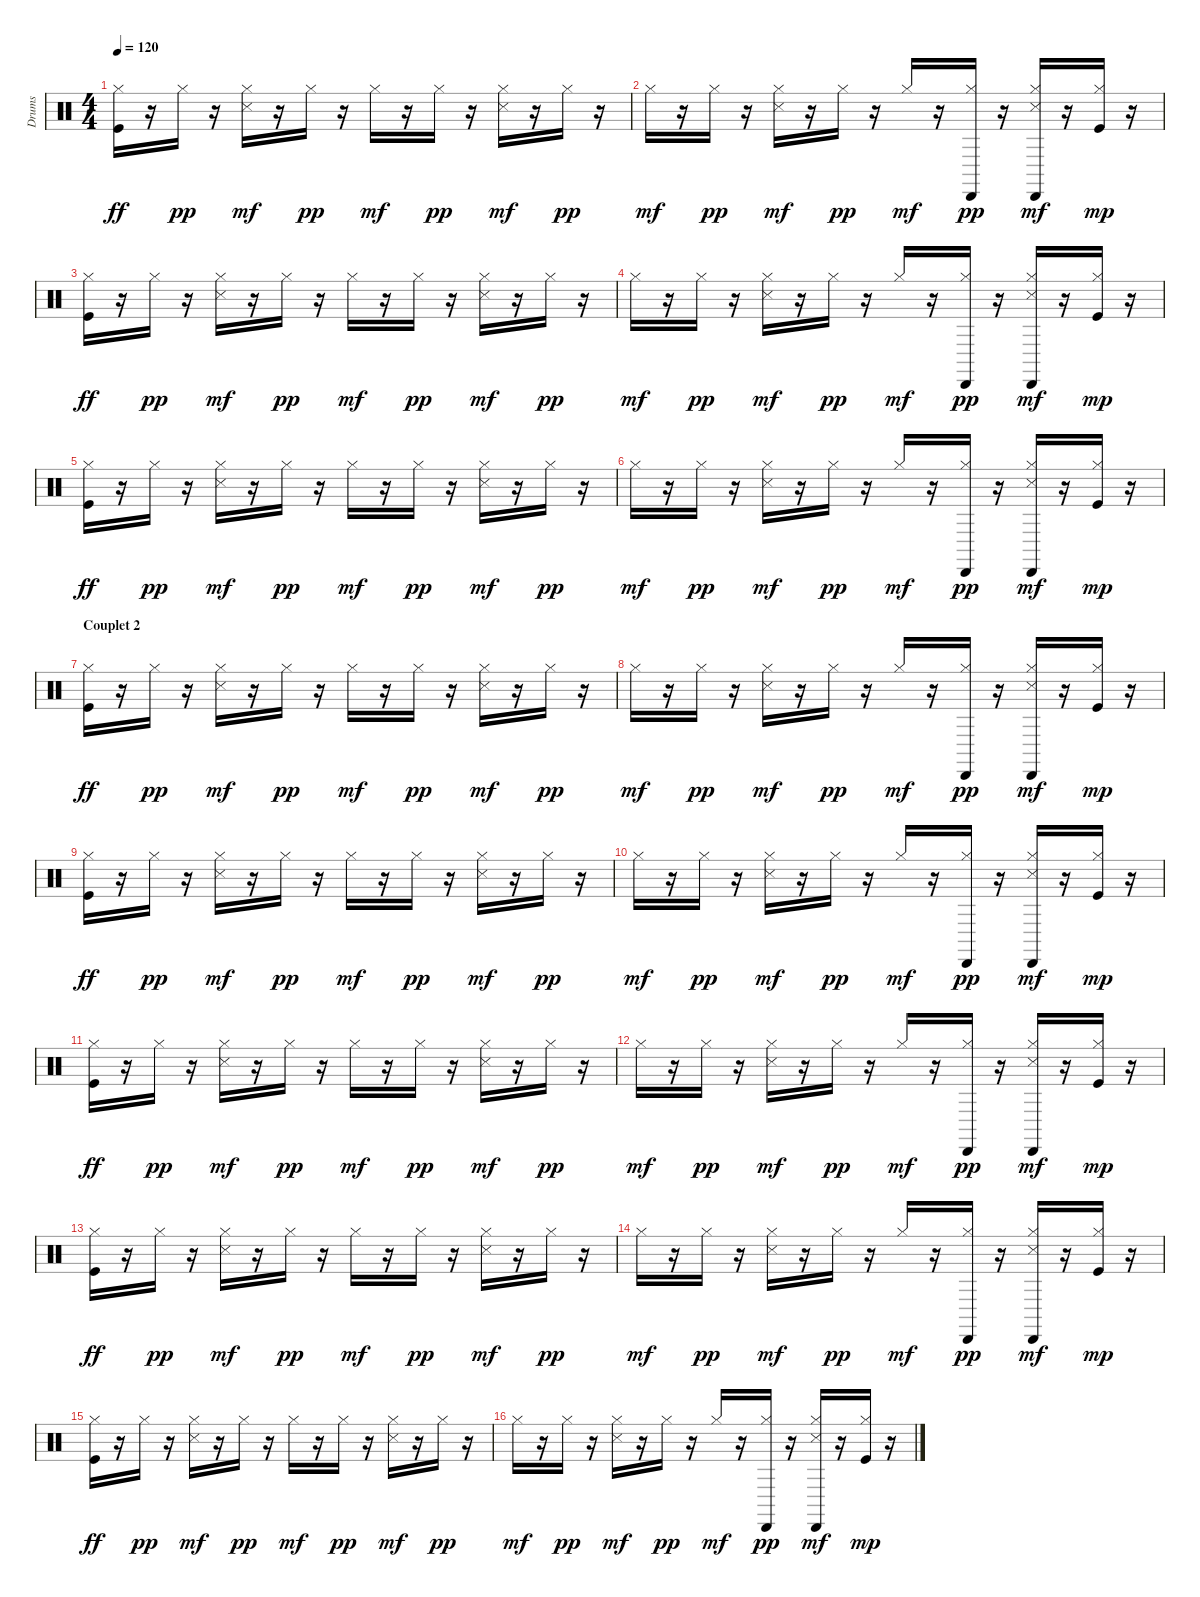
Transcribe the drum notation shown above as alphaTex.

\track ("Drums" "Drums") {instrument percussion}
\staff {score}
\articulation defaults
\ts (4 4)
\tempo 120
\clef neutral
\ks c
("Hi-Hat (closed)" "Kick (hit)").16{dy ff} r.16 "Hi-Hat (closed)".16{dy pp} r.16 ("Snare (side stick) 3" "Hi-Hat (closed)").16{dy mf} r.16 "Hi-Hat (closed)".16{dy pp} r.16 "Hi-Hat (closed)".16{dy mf} r.16 "Hi-Hat (closed)".16{dy pp} r.16 ("Snare (side stick) 3" "Hi-Hat (closed)").16{dy mf} r.16 "Hi-Hat (closed)".16{dy pp} r.16 |
"Hi-Hat (closed)".16{dy mf} r.16 "Hi-Hat (closed)".16{dy pp} r.16 ("Snare (side stick) 3" "Hi-Hat (closed)").16{dy mf} r.16 "Hi-Hat (closed)".16{dy pp} r.16 "Hi-Hat (closed)".16{dy mf} r.16 ("Cabasa (hit)" "Hi-Hat (closed)").16{dy pp} r.16 ("Cabasa (hit)" "Snare (side stick) 3" "Hi-Hat (closed)").16{dy mf} r.16 ("Hi-Hat (closed)" "Kick (hit)").16{dy mp} r.16 |
("Hi-Hat (closed)" "Kick (hit)").16{dy ff} r.16 "Hi-Hat (closed)".16{dy pp} r.16 ("Snare (side stick) 3" "Hi-Hat (closed)").16{dy mf} r.16 "Hi-Hat (closed)".16{dy pp} r.16 "Hi-Hat (closed)".16{dy mf} r.16 "Hi-Hat (closed)".16{dy pp} r.16 ("Snare (side stick) 3" "Hi-Hat (closed)").16{dy mf} r.16 "Hi-Hat (closed)".16{dy pp} r.16 |
"Hi-Hat (closed)".16{dy mf} r.16 "Hi-Hat (closed)".16{dy pp} r.16 ("Snare (side stick) 3" "Hi-Hat (closed)").16{dy mf} r.16 "Hi-Hat (closed)".16{dy pp} r.16 "Hi-Hat (closed)".16{dy mf} r.16 ("Cabasa (hit)" "Hi-Hat (closed)").16{dy pp} r.16 ("Cabasa (hit)" "Snare (side stick) 3" "Hi-Hat (closed)").16{dy mf} r.16 ("Hi-Hat (closed)" "Kick (hit)").16{dy mp} r.16 |
("Hi-Hat (closed)" "Kick (hit)").16{dy ff} r.16 "Hi-Hat (closed)".16{dy pp} r.16 ("Snare (side stick) 3" "Hi-Hat (closed)").16{dy mf} r.16 "Hi-Hat (closed)".16{dy pp} r.16 "Hi-Hat (closed)".16{dy mf} r.16 "Hi-Hat (closed)".16{dy pp} r.16 ("Snare (side stick) 3" "Hi-Hat (closed)").16{dy mf} r.16 "Hi-Hat (closed)".16{dy pp} r.16 |
"Hi-Hat (closed)".16{dy mf} r.16 "Hi-Hat (closed)".16{dy pp} r.16 ("Snare (side stick) 3" "Hi-Hat (closed)").16{dy mf} r.16 "Hi-Hat (closed)".16{dy pp} r.16 "Hi-Hat (closed)".16{dy mf} r.16 ("Cabasa (hit)" "Hi-Hat (closed)").16{dy pp} r.16 ("Cabasa (hit)" "Snare (side stick) 3" "Hi-Hat (closed)").16{dy mf} r.16 ("Hi-Hat (closed)" "Kick (hit)").16{dy mp} r.16 |
\section ("" "Couplet 2")
("Hi-Hat (closed)" "Kick (hit)").16{dy ff} r.16 "Hi-Hat (closed)".16{dy pp} r.16 ("Snare (side stick) 3" "Hi-Hat (closed)").16{dy mf} r.16 "Hi-Hat (closed)".16{dy pp} r.16 "Hi-Hat (closed)".16{dy mf} r.16 "Hi-Hat (closed)".16{dy pp} r.16 ("Snare (side stick) 3" "Hi-Hat (closed)").16{dy mf} r.16 "Hi-Hat (closed)".16{dy pp} r.16 |
"Hi-Hat (closed)".16{dy mf} r.16 "Hi-Hat (closed)".16{dy pp} r.16 ("Snare (side stick) 3" "Hi-Hat (closed)").16{dy mf} r.16 "Hi-Hat (closed)".16{dy pp} r.16 "Hi-Hat (closed)".16{dy mf} r.16 ("Cabasa (hit)" "Hi-Hat (closed)").16{dy pp} r.16 ("Cabasa (hit)" "Snare (side stick) 3" "Hi-Hat (closed)").16{dy mf} r.16 ("Hi-Hat (closed)" "Kick (hit)").16{dy mp} r.16 |
("Hi-Hat (closed)" "Kick (hit)").16{dy ff} r.16 "Hi-Hat (closed)".16{dy pp} r.16 ("Snare (side stick) 3" "Hi-Hat (closed)").16{dy mf} r.16 "Hi-Hat (closed)".16{dy pp} r.16 "Hi-Hat (closed)".16{dy mf} r.16 "Hi-Hat (closed)".16{dy pp} r.16 ("Snare (side stick) 3" "Hi-Hat (closed)").16{dy mf} r.16 "Hi-Hat (closed)".16{dy pp} r.16 |
"Hi-Hat (closed)".16{dy mf} r.16 "Hi-Hat (closed)".16{dy pp} r.16 ("Snare (side stick) 3" "Hi-Hat (closed)").16{dy mf} r.16 "Hi-Hat (closed)".16{dy pp} r.16 "Hi-Hat (closed)".16{dy mf} r.16 ("Cabasa (hit)" "Hi-Hat (closed)").16{dy pp} r.16 ("Cabasa (hit)" "Snare (side stick) 3" "Hi-Hat (closed)").16{dy mf} r.16 ("Hi-Hat (closed)" "Kick (hit)").16{dy mp} r.16 |
("Hi-Hat (closed)" "Kick (hit)").16{dy ff} r.16 "Hi-Hat (closed)".16{dy pp} r.16 ("Snare (side stick) 3" "Hi-Hat (closed)").16{dy mf} r.16 "Hi-Hat (closed)".16{dy pp} r.16 "Hi-Hat (closed)".16{dy mf} r.16 "Hi-Hat (closed)".16{dy pp} r.16 ("Snare (side stick) 3" "Hi-Hat (closed)").16{dy mf} r.16 "Hi-Hat (closed)".16{dy pp} r.16 |
"Hi-Hat (closed)".16{dy mf} r.16 "Hi-Hat (closed)".16{dy pp} r.16 ("Snare (side stick) 3" "Hi-Hat (closed)").16{dy mf} r.16 "Hi-Hat (closed)".16{dy pp} r.16 "Hi-Hat (closed)".16{dy mf} r.16 ("Cabasa (hit)" "Hi-Hat (closed)").16{dy pp} r.16 ("Cabasa (hit)" "Snare (side stick) 3" "Hi-Hat (closed)").16{dy mf} r.16 ("Hi-Hat (closed)" "Kick (hit)").16{dy mp} r.16 |
("Hi-Hat (closed)" "Kick (hit)").16{dy ff} r.16 "Hi-Hat (closed)".16{dy pp} r.16 ("Snare (side stick) 3" "Hi-Hat (closed)").16{dy mf} r.16 "Hi-Hat (closed)".16{dy pp} r.16 "Hi-Hat (closed)".16{dy mf} r.16 "Hi-Hat (closed)".16{dy pp} r.16 ("Snare (side stick) 3" "Hi-Hat (closed)").16{dy mf} r.16 "Hi-Hat (closed)".16{dy pp} r.16 |
"Hi-Hat (closed)".16{dy mf} r.16 "Hi-Hat (closed)".16{dy pp} r.16 ("Snare (side stick) 3" "Hi-Hat (closed)").16{dy mf} r.16 "Hi-Hat (closed)".16{dy pp} r.16 "Hi-Hat (closed)".16{dy mf} r.16 ("Cabasa (hit)" "Hi-Hat (closed)").16{dy pp} r.16 ("Cabasa (hit)" "Snare (side stick) 3" "Hi-Hat (closed)").16{dy mf} r.16 ("Hi-Hat (closed)" "Kick (hit)").16{dy mp} r.16 |
("Hi-Hat (closed)" "Kick (hit)").16{dy ff} r.16 "Hi-Hat (closed)".16{dy pp} r.16 ("Snare (side stick) 3" "Hi-Hat (closed)").16{dy mf} r.16 "Hi-Hat (closed)".16{dy pp} r.16 "Hi-Hat (closed)".16{dy mf} r.16 "Hi-Hat (closed)".16{dy pp} r.16 ("Snare (side stick) 3" "Hi-Hat (closed)").16{dy mf} r.16 "Hi-Hat (closed)".16{dy pp} r.16 |
"Hi-Hat (closed)".16{dy mf} r.16 "Hi-Hat (closed)".16{dy pp} r.16 ("Snare (side stick) 3" "Hi-Hat (closed)").16{dy mf} r.16 "Hi-Hat (closed)".16{dy pp} r.16 "Hi-Hat (closed)".16{dy mf} r.16 ("Cabasa (hit)" "Hi-Hat (closed)").16{dy pp} r.16 ("Cabasa (hit)" "Snare (side stick) 3" "Hi-Hat (closed)").16{dy mf} r.16 ("Hi-Hat (closed)" "Kick (hit)").16{dy mp} r.16
